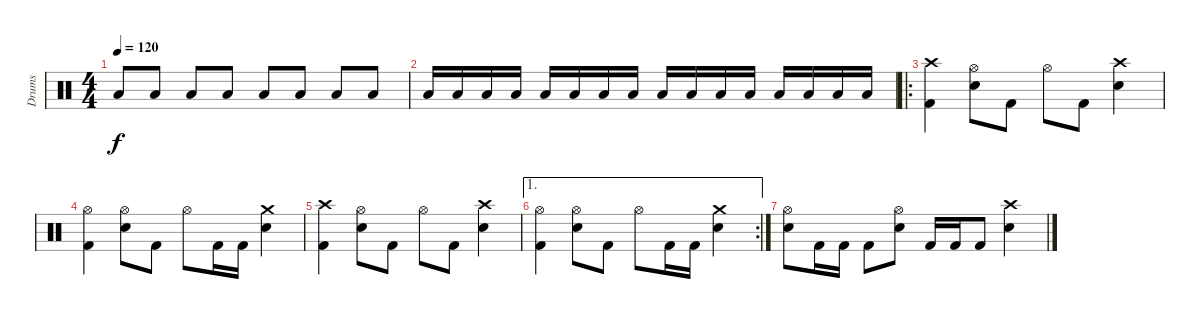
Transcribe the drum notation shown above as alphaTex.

\track ("Drums" "Drums") {instrument percussion}
\staff {score}
\articulation defaults
\ts (4 4)
\tempo 120
\clef neutral
\ks c "Low Floor Tom (hit)".8{dy f} "Low Floor Tom (hit)".8 "Low Floor Tom (hit)".8 "Low Floor Tom (hit)".8 "Low Floor Tom (hit)".8 "Low Floor Tom (hit)".8 "Low Floor Tom (hit)".8 "Low Floor Tom (hit)".8
|
"Low Floor Tom (hit)".16 "Low Floor Tom (hit)".16 "Low Floor Tom (hit)".16 "Low Floor Tom (hit)".16 "Low Floor Tom (hit)".16 "Low Floor Tom (hit)".16 "Low Floor Tom (hit)".16 "Low Floor Tom (hit)".16 "Low Floor Tom (hit)".16 "Low Floor Tom (hit)".16 "Low Floor Tom (hit)".16 "Low Floor Tom (hit)".16 "Low Floor Tom (hit)".16 "Low Floor Tom (hit)".16 "Low Floor Tom (hit)".16 "Low Floor Tom (hit)".16 |
\ro
("Kick (hit) 2" "Crash high (hit)").4 ("Snare (hit) 2" "Hi-Hat (open)").8 "Kick (hit) 2".8 "Hi-Hat (open)".8 "Kick (hit) 2".8 ("Crash high (hit)" "Snare (hit) 2").4 |
("Kick (hit) 2" "Hi-Hat (open)").4 ("Snare (hit) 2" "Hi-Hat (open)").8 "Kick (hit) 2".8 "Hi-Hat (open)".8 "Kick (hit) 2".16 "Kick (hit) 2".16 ("Crash medium (hit)" "Snare (hit) 2").4 |
("Kick (hit) 2" "Crash high (hit)").4 ("Snare (hit) 2" "Hi-Hat (open)").8 "Kick (hit) 2".8 "Hi-Hat (open)".8 "Kick (hit) 2".8 ("Crash high (hit)" "Snare (hit) 2").4 |
\ae 1
\rc 2
("Kick (hit) 2" "Hi-Hat (open)").4 ("Snare (hit) 2" "Hi-Hat (open)").8 "Kick (hit) 2".8 "Hi-Hat (open)".8 "Kick (hit) 2".16 "Kick (hit) 2".16 ("Crash medium (hit)" "Snare (hit) 2").4 |
("Hi-Hat (open)" "Snare (hit) 2").8 "Kick (hit) 2".16 "Kick (hit) 2".16 "Kick (hit) 2".8 ("Hi-Hat (open)" "Snare (hit) 2").8 "Kick (hit) 2".16 "Kick (hit) 2".16 "Kick (hit) 2".8 ("Crash high (hit)" "Snare (hit) 2").4
